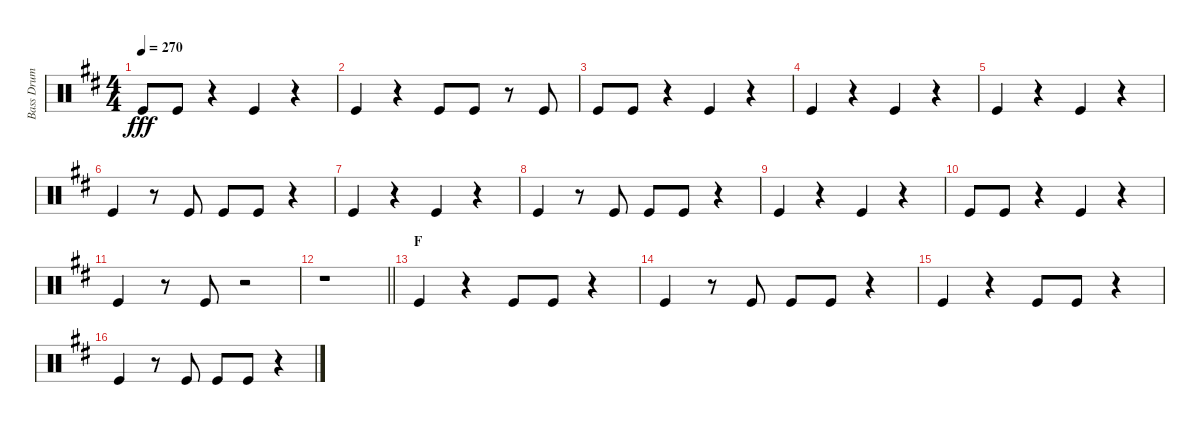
\track ("Bass Drum" "Bass Drum") {instrument percussion}
\staff {score}
\articulation defaults
\ts (4 4)
\tempo 270
\clef neutral
\ks d "Kick (hit)".8{dy fff} "Kick (hit)".8
r.4 "Kick (hit)".4 r.4 |
"Kick (hit)".4 r.4 "Kick (hit)".8 "Kick (hit)".8 r.8 "Kick (hit)".8 |
"Kick (hit)".8 "Kick (hit)".8 r.4 "Kick (hit)".4 r.4 |
"Kick (hit)".4 r.4 "Kick (hit)".4 r.4 |
"Kick (hit)".4 r.4 "Kick (hit)".4 r.4 |
"Kick (hit)".4 r.8 "Kick (hit)".8 "Kick (hit)".8 "Kick (hit)".8 r.4 |
"Kick (hit)".4 r.4 "Kick (hit)".4 r.4 |
"Kick (hit)".4 r.8 "Kick (hit)".8 "Kick (hit)".8 "Kick (hit)".8 r.4 |
"Kick (hit)".4 r.4 "Kick (hit)".4 r.4 |
"Kick (hit)".8 "Kick (hit)".8 r.4 "Kick (hit)".4 r.4 |
"Kick (hit)".4 r.8 "Kick (hit)".8 r.2 |
\barLineRight lightlight
r.1 |
\section ("" "F")
"Kick (hit)".4 r.4 "Kick (hit)".8 "Kick (hit)".8 r.4 |
"Kick (hit)".4 r.8 "Kick (hit)".8 "Kick (hit)".8 "Kick (hit)".8 r.4 |
"Kick (hit)".4 r.4 "Kick (hit)".8 "Kick (hit)".8 r.4 |
"Kick (hit)".4 r.8 "Kick (hit)".8 "Kick (hit)".8 "Kick (hit)".8 r.4
